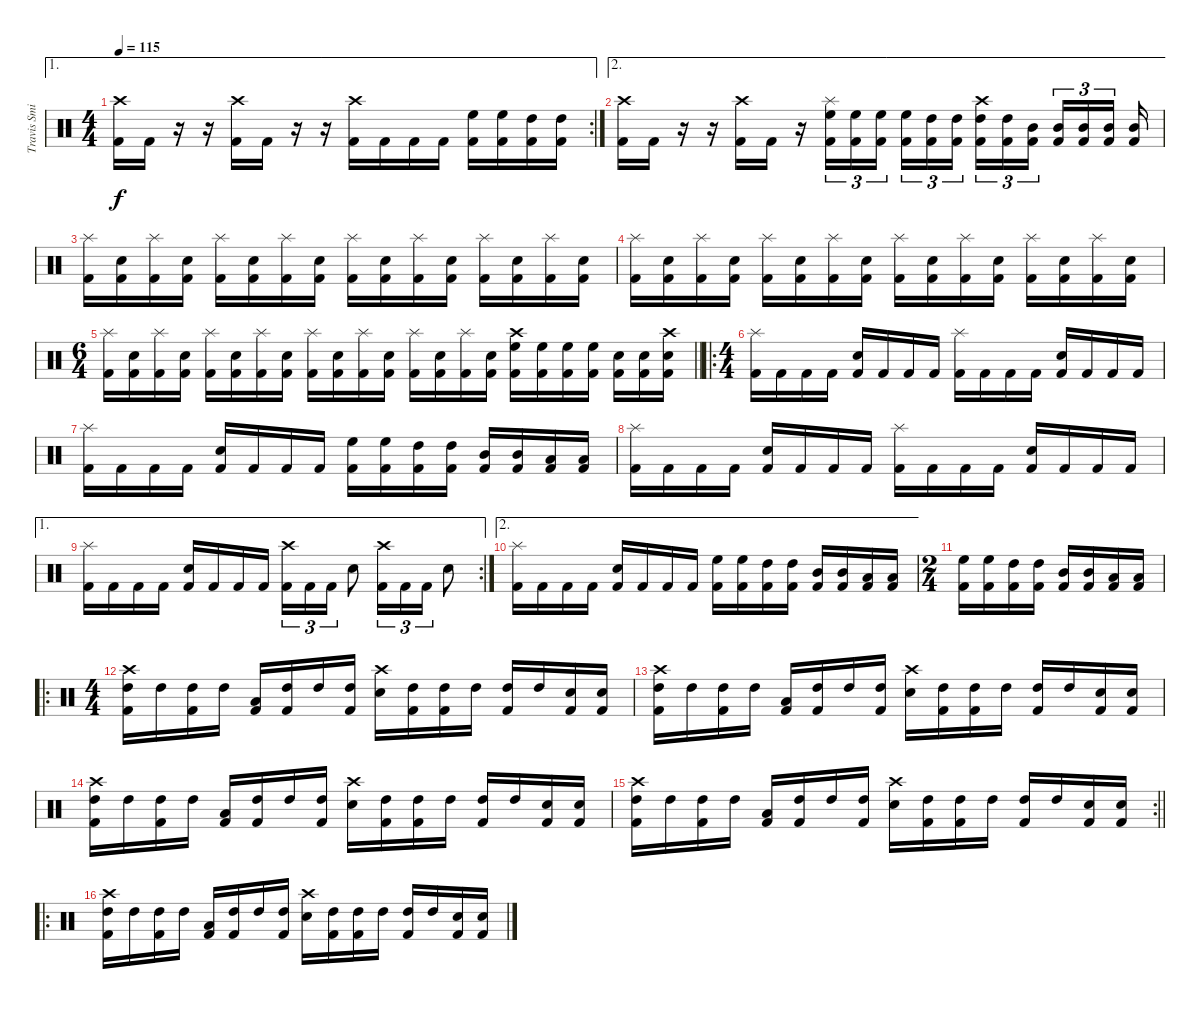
\track ("Travis Smith" "Travis Smi") {instrument percussion}
\staff {score}
\articulation defaults
\ae 1
\rc 2
\ts (4 4)
\tempo 115
\clef neutral
\ks c
("Crash high (hit)" "Kick (hit) 2").16{dy f} "Kick (hit) 2".16 r.16 r.16 ("Crash high (hit)" "Kick (hit) 2").16 "Kick (hit) 2".16 r.16 r.16 ("Crash high (hit)" "Kick (hit) 2").16 "Kick (hit) 2".16 "Kick (hit) 2".16 "Kick (hit) 2".16 ("High Floor Tom (hit)" "Kick (hit) 2").16 ("High Floor Tom (hit)" "Kick (hit) 2").16 ("High Tom (hit)" "Kick (hit) 2").16 ("High Tom (hit)" "Kick (hit) 2").16 |
\ae 2
("Crash high (hit)" "Kick (hit) 2").16 "Kick (hit) 2".16 r.16 r.16 ("Crash high (hit)" "Kick (hit) 2").16 "Kick (hit) 2".16 r.16 ("Splash (hit)" "High Floor Tom (hit)" "Kick (hit) 2").16{tu (3 2)} ("High Floor Tom (hit)" "Kick (hit) 2").16{tu (3 2)} ("High Floor Tom (hit)" "Kick (hit) 2").16{tu (3 2)} ("High Floor Tom (hit)" "Kick (hit) 2").16{tu (3 2)} ("High Tom (hit)" "Kick (hit) 2").16{tu (3 2)} ("High Tom (hit)" "Kick (hit) 2").16{tu (3 2)} ("Crash high (hit)" "High Tom (hit)" "Kick (hit) 2").16{tu (3 2)} ("High Tom (hit)" "Kick (hit) 2").16{tu (3 2)} ("Mid Tom (hit)" "Kick (hit) 2").16{tu (3 2)} ("Mid Tom (hit)" "Kick (hit) 2").16{tu (3 2)} ("Mid Tom (hit)" "Kick (hit) 2").16{tu (3 2)} ("Mid Tom (hit)" "Kick (hit) 2").16{tu (3 2)} ("Mid Tom (hit)" "Kick (hit) 2").16 |
("Splash (hit)" "Kick (hit) 2").16 ("Electric Snare (hit)" "Kick (hit) 2").16 ("Splash (hit)" "Kick (hit) 2").16 ("Electric Snare (hit)" "Kick (hit) 2").16 ("Splash (hit)" "Kick (hit) 2").16 ("Electric Snare (hit)" "Kick (hit) 2").16 ("Splash (hit)" "Kick (hit) 2").16 ("Electric Snare (hit)" "Kick (hit) 2").16 ("Splash (hit)" "Kick (hit) 2").16 ("Electric Snare (hit)" "Kick (hit) 2").16 ("Splash (hit)" "Kick (hit) 2").16 ("Electric Snare (hit)" "Kick (hit) 2").16 ("Splash (hit)" "Kick (hit) 2").16 ("Electric Snare (hit)" "Kick (hit) 2").16 ("Splash (hit)" "Kick (hit) 2").16 ("Electric Snare (hit)" "Kick (hit) 2").16 |
("Splash (hit)" "Kick (hit) 2").16 ("Electric Snare (hit)" "Kick (hit) 2").16 ("Splash (hit)" "Kick (hit) 2").16 ("Electric Snare (hit)" "Kick (hit) 2").16 ("Splash (hit)" "Kick (hit) 2").16 ("Electric Snare (hit)" "Kick (hit) 2").16 ("Splash (hit)" "Kick (hit) 2").16 ("Electric Snare (hit)" "Kick (hit) 2").16 ("Splash (hit)" "Kick (hit) 2").16 ("Electric Snare (hit)" "Kick (hit) 2").16 ("Splash (hit)" "Kick (hit) 2").16 ("Electric Snare (hit)" "Kick (hit) 2").16 ("Splash (hit)" "Kick (hit) 2").16 ("Electric Snare (hit)" "Kick (hit) 2").16 ("Splash (hit)" "Kick (hit) 2").16 ("Electric Snare (hit)" "Kick (hit) 2").16 |
\ts (6 4)
\barLineRight lightlight
("Splash (hit)" "Kick (hit) 2").16 ("Electric Snare (hit)" "Kick (hit) 2").16 ("Splash (hit)" "Kick (hit) 2").16 ("Electric Snare (hit)" "Kick (hit) 2").16 ("Splash (hit)" "Kick (hit) 2").16 ("Electric Snare (hit)" "Kick (hit) 2").16 ("Splash (hit)" "Kick (hit) 2").16 ("Electric Snare (hit)" "Kick (hit) 2").16 ("Splash (hit)" "Kick (hit) 2").16 ("Electric Snare (hit)" "Kick (hit) 2").16 ("Splash (hit)" "Kick (hit) 2").16 ("Electric Snare (hit)" "Kick (hit) 2").16 ("Splash (hit)" "Kick (hit) 2").16 ("Electric Snare (hit)" "Kick (hit) 2").16 ("Splash (hit)" "Kick (hit) 2").16 ("Electric Snare (hit)" "Kick (hit) 2").16 ("Crash high (hit)" "High Floor Tom (hit)" "Kick (hit) 2").16 ("High Floor Tom (hit)" "Kick (hit) 2").16 ("High Floor Tom (hit)" "Kick (hit) 2").16 ("High Floor Tom (hit)" "Kick (hit) 2").16 ("Electric Snare (hit)" "Kick (hit) 2").16 ("Electric Snare (hit)" "Kick (hit) 2").16 ("Crash high (hit)" "Electric Snare (hit)" "Kick (hit) 2").16 |
\ro
\ts (4 4)
("Splash (hit)" "Kick (hit) 2").16 "Kick (hit) 2".16 "Kick (hit) 2".16 "Kick (hit) 2".16 ("Electric Snare (hit)" "Kick (hit) 2").16 "Kick (hit) 2".16 "Kick (hit) 2".16 "Kick (hit) 2".16 ("Splash (hit)" "Kick (hit) 2").16 "Kick (hit) 2".16 "Kick (hit) 2".16 "Kick (hit) 2".16 ("Electric Snare (hit)" "Kick (hit) 2").16 "Kick (hit) 2".16 "Kick (hit) 2".16 "Kick (hit) 2".16 |
("Splash (hit)" "Kick (hit) 2").16 "Kick (hit) 2".16 "Kick (hit) 2".16 "Kick (hit) 2".16 ("Electric Snare (hit)" "Kick (hit) 2").16 "Kick (hit) 2".16 "Kick (hit) 2".16 "Kick (hit) 2".16 ("High Floor Tom (hit)" "Kick (hit) 2").16 ("High Floor Tom (hit)" "Kick (hit) 2").16 ("High Tom (hit)" "Kick (hit) 2").16 ("High Tom (hit)" "Kick (hit) 2").16 ("Mid Tom (hit)" "Kick (hit) 2").16 ("Mid Tom (hit)" "Kick (hit) 2").16 ("Low Tom (hit)" "Kick (hit) 2").16 ("Low Tom (hit)" "Kick (hit) 2").16 |
("Splash (hit)" "Kick (hit) 2").16 "Kick (hit) 2".16 "Kick (hit) 2".16 "Kick (hit) 2".16 ("Electric Snare (hit)" "Kick (hit) 2").16 "Kick (hit) 2".16 "Kick (hit) 2".16 "Kick (hit) 2".16 ("Splash (hit)" "Kick (hit) 2").16 "Kick (hit) 2".16 "Kick (hit) 2".16 "Kick (hit) 2".16 ("Electric Snare (hit)" "Kick (hit) 2").16 "Kick (hit) 2".16 "Kick (hit) 2".16 "Kick (hit) 2".16 |
\ae 1
\rc 2
("Splash (hit)" "Kick (hit) 2").16 "Kick (hit) 2".16 "Kick (hit) 2".16 "Kick (hit) 2".16 ("Electric Snare (hit)" "Kick (hit) 2").16 "Kick (hit) 2".16 "Kick (hit) 2".16 "Kick (hit) 2".16 ("Crash high (hit)" "Kick (hit) 2").16{tu (3 2)} "Kick (hit) 2".16{tu (3 2)} "Kick (hit) 2".16{tu (3 2)} "Electric Snare (hit)".8 ("Crash high (hit)" "Kick (hit) 2").16{tu (3 2)} "Kick (hit) 2".16{tu (3 2)} "Kick (hit) 2".16{tu (3 2)} "Electric Snare (hit)".8 |
\ae 2
("Splash (hit)" "Kick (hit) 2").16 "Kick (hit) 2".16 "Kick (hit) 2".16 "Kick (hit) 2".16 ("Electric Snare (hit)" "Kick (hit) 2").16 "Kick (hit) 2".16 "Kick (hit) 2".16 "Kick (hit) 2".16 ("High Floor Tom (hit)" "Kick (hit) 2").16 ("High Floor Tom (hit)" "Kick (hit) 2").16 ("High Tom (hit)" "Kick (hit) 2").16 ("High Tom (hit)" "Kick (hit) 2").16 ("Mid Tom (hit)" "Kick (hit) 2").16 ("Mid Tom (hit)" "Kick (hit) 2").16 ("Low Tom (hit)" "Kick (hit) 2").16 ("Low Tom (hit)" "Kick (hit) 2").16 |
\ts (2 4)
("High Floor Tom (hit)" "Kick (hit) 2").16 ("High Floor Tom (hit)" "Kick (hit) 2").16 ("High Tom (hit)" "Kick (hit) 2").16 ("High Tom (hit)" "Kick (hit) 2").16 ("Mid Tom (hit)" "Kick (hit) 2").16 ("Mid Tom (hit)" "Kick (hit) 2").16 ("Low Tom (hit)" "Kick (hit) 2").16 ("Low Tom (hit)" "Kick (hit) 2").16 |
\ro
\ts (4 4)
("Crash high (hit)" "High Tom (hit)" "Kick (hit) 2").16 "High Tom (hit)".16 ("High Tom (hit)" "Kick (hit) 2").16 "High Tom (hit)".16 ("Low Tom (hit)" "Kick (hit) 2").16 ("High Tom (hit)" "Kick (hit) 2").16 "High Tom (hit)".16 ("High Tom (hit)" "Kick (hit) 2").16 ("Crash high (hit)" "Electric Snare (hit)").16 ("High Tom (hit)" "Kick (hit) 2").16 ("High Tom (hit)" "Kick (hit) 2").16 "High Tom (hit)".16 ("High Tom (hit)" "Kick (hit) 2").16 "High Tom (hit)".16 ("Electric Snare (hit)" "Kick (hit) 2").16 ("Electric Snare (hit)" "Kick (hit) 2").16 |
("Crash high (hit)" "High Tom (hit)" "Kick (hit) 2").16 "High Tom (hit)".16 ("High Tom (hit)" "Kick (hit) 2").16 "High Tom (hit)".16 ("Low Tom (hit)" "Kick (hit) 2").16 ("High Tom (hit)" "Kick (hit) 2").16 "High Tom (hit)".16 ("High Tom (hit)" "Kick (hit) 2").16 ("Crash high (hit)" "Electric Snare (hit)").16 ("High Tom (hit)" "Kick (hit) 2").16 ("High Tom (hit)" "Kick (hit) 2").16 "High Tom (hit)".16 ("High Tom (hit)" "Kick (hit) 2").16 "High Tom (hit)".16 ("Electric Snare (hit)" "Kick (hit) 2").16 ("Electric Snare (hit)" "Kick (hit) 2").16 |
("Crash high (hit)" "High Tom (hit)" "Kick (hit) 2").16 "High Tom (hit)".16 ("High Tom (hit)" "Kick (hit) 2").16 "High Tom (hit)".16 ("Low Tom (hit)" "Kick (hit) 2").16 ("High Tom (hit)" "Kick (hit) 2").16 "High Tom (hit)".16 ("High Tom (hit)" "Kick (hit) 2").16 ("Crash high (hit)" "Electric Snare (hit)").16 ("High Tom (hit)" "Kick (hit) 2").16 ("High Tom (hit)" "Kick (hit) 2").16 "High Tom (hit)".16 ("High Tom (hit)" "Kick (hit) 2").16 "High Tom (hit)".16 ("Electric Snare (hit)" "Kick (hit) 2").16 ("Electric Snare (hit)" "Kick (hit) 2").16 |
\rc 2
\barLineRight lightlight
("Crash high (hit)" "High Tom (hit)" "Kick (hit) 2").16 "High Tom (hit)".16 ("High Tom (hit)" "Kick (hit) 2").16 "High Tom (hit)".16 ("Low Tom (hit)" "Kick (hit) 2").16 ("High Tom (hit)" "Kick (hit) 2").16 "High Tom (hit)".16 ("High Tom (hit)" "Kick (hit) 2").16 ("Crash high (hit)" "Electric Snare (hit)").16 ("High Tom (hit)" "Kick (hit) 2").16 ("High Tom (hit)" "Kick (hit) 2").16 "High Tom (hit)".16 ("High Tom (hit)" "Kick (hit) 2").16 "High Tom (hit)".16 ("Electric Snare (hit)" "Kick (hit) 2").16 ("Electric Snare (hit)" "Kick (hit) 2").16 |
\ro
("Crash high (hit)" "High Tom (hit)" "Kick (hit) 2").16 "High Tom (hit)".16 ("High Tom (hit)" "Kick (hit) 2").16 "High Tom (hit)".16 ("Low Tom (hit)" "Kick (hit) 2").16 ("High Tom (hit)" "Kick (hit) 2").16 "High Tom (hit)".16 ("High Tom (hit)" "Kick (hit) 2").16 ("Crash high (hit)" "Electric Snare (hit)").16 ("High Tom (hit)" "Kick (hit) 2").16 ("High Tom (hit)" "Kick (hit) 2").16 "High Tom (hit)".16 ("High Tom (hit)" "Kick (hit) 2").16 "High Tom (hit)".16 ("Electric Snare (hit)" "Kick (hit) 2").16 ("Electric Snare (hit)" "Kick (hit) 2").16
